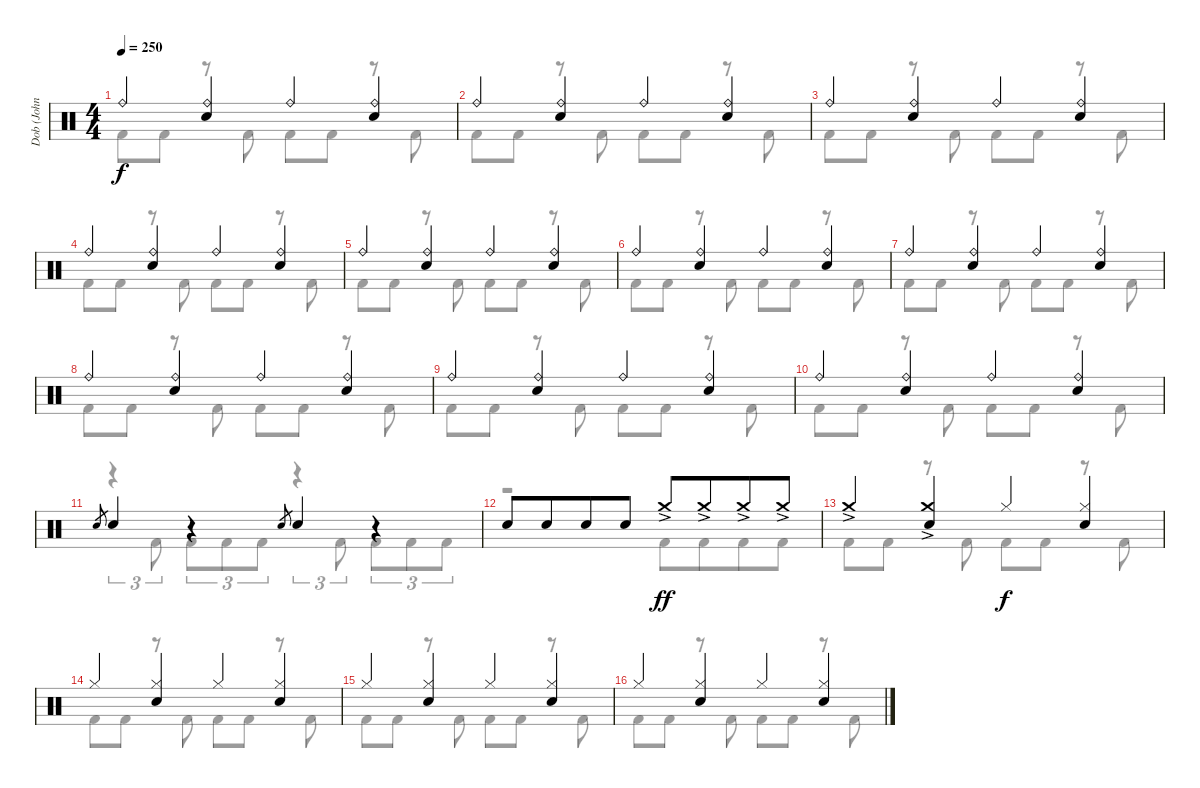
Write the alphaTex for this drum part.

\track ("Dob (John Macaluso)" "Dob (John ") {instrument percussion}
\staff {score}
\articulation defaults
\voice
\ts (4 4)
\tempo 250
\clef neutral
\ks c "Ride (bell)".4{dy f}
("Ride (bell)" "Electric Snare (hit)").4 "Ride (bell)".4 ("Ride (bell)" "Electric Snare (hit)").4 |
"Ride (bell)".4 ("Ride (bell)" "Electric Snare (hit)").4 "Ride (bell)".4 ("Ride (bell)" "Electric Snare (hit)").4 |
"Ride (bell)".4 ("Ride (bell)" "Electric Snare (hit)").4 "Ride (bell)".4 ("Ride (bell)" "Electric Snare (hit)").4 |
"Ride (bell)".4 ("Ride (bell)" "Electric Snare (hit)").4 "Ride (bell)".4 ("Ride (bell)" "Electric Snare (hit)").4 |
"Ride (bell)".4 ("Ride (bell)" "Electric Snare (hit)").4 "Ride (bell)".4 ("Ride (bell)" "Electric Snare (hit)").4 |
"Ride (bell)".4 ("Ride (bell)" "Electric Snare (hit)").4 "Ride (bell)".4 ("Ride (bell)" "Electric Snare (hit)").4 |
"Ride (bell)".4 ("Ride (bell)" "Electric Snare (hit)").4 "Ride (bell)".4 ("Ride (bell)" "Electric Snare (hit)").4 |
"Ride (bell)".4 ("Ride (bell)" "Electric Snare (hit)").4 "Ride (bell)".4 ("Ride (bell)" "Electric Snare (hit)").4 |
"Ride (bell)".4 ("Ride (bell)" "Electric Snare (hit)").4 "Ride (bell)".4 ("Ride (bell)" "Electric Snare (hit)").4 |
"Ride (bell)".4 ("Ride (bell)" "Electric Snare (hit)").4 "Ride (bell)".4 ("Ride (bell)" "Electric Snare (hit)").4 |
"Electric Snare (hit)".8{gr} "Electric Snare (hit)".4 r.4 "Electric Snare (hit)".8{gr} "Electric Snare (hit)".4 r.4 |
"Electric Snare (hit)".8 "Electric Snare (hit)".8{beam merge} "Electric Snare (hit)".8 "Electric Snare (hit)".8 "Crash medium (hit)"{ac}.8{dy ff} "Crash medium (hit)"{ac}.8{beam merge} "Crash medium (hit)"{ac}.8 "Crash medium (hit)"{ac}.8 |
"Crash medium (hit)"{ac}.4 ("Crash medium (hit)"{ac} "Electric Snare (hit)").4 "Hi-Hat (closed)".4{dy f} ("Hi-Hat (closed)" "Electric Snare (hit)").4 |
"Hi-Hat (closed)".4 ("Hi-Hat (closed)" "Electric Snare (hit)").4 "Hi-Hat (closed)".4 ("Hi-Hat (closed)" "Electric Snare (hit)").4 |
"Hi-Hat (closed)".4 ("Hi-Hat (closed)" "Electric Snare (hit)").4 "Hi-Hat (closed)".4 ("Hi-Hat (closed)" "Electric Snare (hit)").4 |
"Hi-Hat (closed)".4 ("Hi-Hat (closed)" "Electric Snare (hit)").4 "Hi-Hat (closed)".4 ("Hi-Hat (closed)" "Electric Snare (hit)").4
\voice
\clef neutral
\ottava regular
\simile none
\ks c "Kick (hit) 2".8{dy f} "Kick (hit) 2".8
r.8 "Kick (hit) 2".8 "Kick (hit) 2".8 "Kick (hit) 2".8 r.8 "Kick (hit) 2".8 |
"Kick (hit) 2".8 "Kick (hit) 2".8 r.8 "Kick (hit) 2".8 "Kick (hit) 2".8 "Kick (hit) 2".8 r.8 "Kick (hit) 2".8 |
"Kick (hit) 2".8 "Kick (hit) 2".8 r.8 "Kick (hit) 2".8 "Kick (hit) 2".8 "Kick (hit) 2".8 r.8 "Kick (hit) 2".8 |
"Kick (hit) 2".8 "Kick (hit) 2".8 r.8 "Kick (hit) 2".8 "Kick (hit) 2".8 "Kick (hit) 2".8 r.8 "Kick (hit) 2".8 |
"Kick (hit) 2".8 "Kick (hit) 2".8 r.8 "Kick (hit) 2".8 "Kick (hit) 2".8 "Kick (hit) 2".8 r.8 "Kick (hit) 2".8 |
"Kick (hit) 2".8 "Kick (hit) 2".8 r.8 "Kick (hit) 2".8 "Kick (hit) 2".8 "Kick (hit) 2".8 r.8 "Kick (hit) 2".8 |
"Kick (hit) 2".8 "Kick (hit) 2".8 r.8 "Kick (hit) 2".8 "Kick (hit) 2".8 "Kick (hit) 2".8 r.8 "Kick (hit) 2".8 |
"Kick (hit) 2".8 "Kick (hit) 2".8 r.8 "Kick (hit) 2".8 "Kick (hit) 2".8 "Kick (hit) 2".8 r.8 "Kick (hit) 2".8 |
"Kick (hit) 2".8 "Kick (hit) 2".8 r.8 "Kick (hit) 2".8 "Kick (hit) 2".8 "Kick (hit) 2".8 r.8 "Kick (hit) 2".8 |
"Kick (hit) 2".8 "Kick (hit) 2".8 r.8 "Kick (hit) 2".8 "Kick (hit) 2".8 "Kick (hit) 2".8 r.8 "Kick (hit) 2".8 |
r.4{tu (3 2)} "Kick (hit) 2".8{tu (3 2)} "Kick (hit) 2".8{tu (3 2)} "Kick (hit) 2".8{tu (3 2)} "Kick (hit) 2".8{tu (3 2)} r.4{tu (3 2)} "Kick (hit) 2".8{tu (3 2)} "Kick (hit) 2".8{tu (3 2)} "Kick (hit) 2".8{tu (3 2)} "Kick (hit) 2".8{tu (3 2)} |
r.2 "Kick (hit) 2".8 "Kick (hit) 2".8{beam merge} "Kick (hit) 2".8 "Kick (hit) 2".8 |
"Kick (hit) 2".8 "Kick (hit) 2".8 r.8 "Kick (hit) 2".8 "Kick (hit) 2".8 "Kick (hit) 2".8 r.8 "Kick (hit) 2".8 |
"Kick (hit) 2".8 "Kick (hit) 2".8 r.8 "Kick (hit) 2".8 "Kick (hit) 2".8 "Kick (hit) 2".8 r.8 "Kick (hit) 2".8 |
"Kick (hit) 2".8 "Kick (hit) 2".8 r.8 "Kick (hit) 2".8 "Kick (hit) 2".8 "Kick (hit) 2".8 r.8 "Kick (hit) 2".8 |
"Kick (hit) 2".8 "Kick (hit) 2".8 r.8 "Kick (hit) 2".8 "Kick (hit) 2".8 "Kick (hit) 2".8 r.8 "Kick (hit) 2".8
